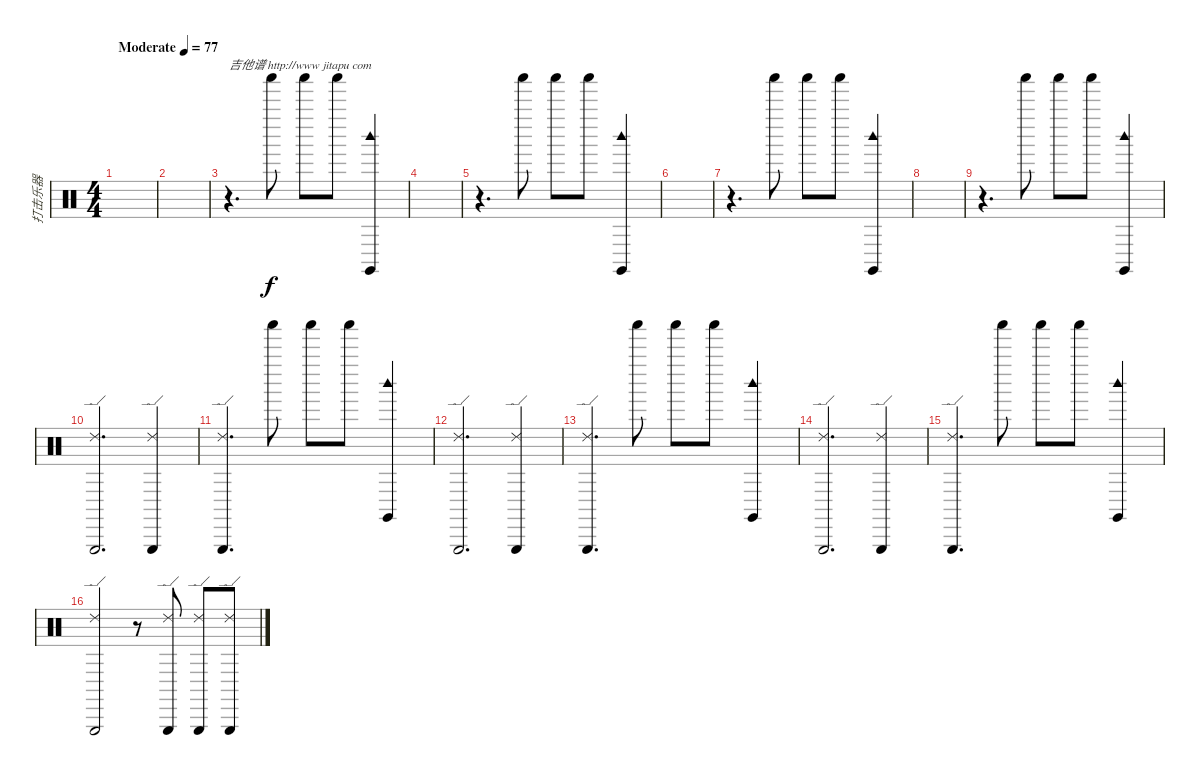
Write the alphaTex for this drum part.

\track ("打击乐器" "打击乐器") {instrument percussion}
\staff {score}
\articulation defaults
\ts (4 4)
\tempo (77 "Moderate")
\clef neutral
\ks c
|
|
r.4{d txt "吉他谱 http://www jitapu com"} "Shaker (hit)".8 "Shaker (hit)".8 "Shaker (hit)".8 ("Claves (hit)" "Woodblock high (hit)").4 |
|
r.4{d} "Shaker (hit)".8 "Shaker (hit)".8 "Shaker (hit)".8 ("Claves (hit)" "Woodblock high (hit)").4 |
|
r.4{d} "Shaker (hit)".8 "Shaker (hit)".8 "Shaker (hit)".8 ("Claves (hit)" "Woodblock high (hit)").4 |
|
r.4{d} "Shaker (hit)".8 "Shaker (hit)".8 "Shaker (hit)".8 ("Claves (hit)" "Woodblock high (hit)").4 |
("Ride (edge) 2" "Triangle (hit)").2{d} ("Ride (edge) 2" "Triangle (hit)").4 |
("Ride (edge) 2" "Triangle (hit)").4{d} "Shaker (hit)".8 "Shaker (hit)".8 "Shaker (hit)".8 ("Claves (hit)" "Woodblock high (hit)").4 |
("Ride (edge) 2" "Triangle (hit)").2{d} ("Ride (edge) 2" "Triangle (hit)").4 |
("Ride (edge) 2" "Triangle (hit)").4{d} "Shaker (hit)".8 "Shaker (hit)".8 "Shaker (hit)".8 ("Claves (hit)" "Woodblock high (hit)").4 |
("Ride (edge) 2" "Triangle (hit)").2{d} ("Ride (edge) 2" "Triangle (hit)").4 |
("Ride (edge) 2" "Triangle (hit)").4{d} "Shaker (hit)".8 "Shaker (hit)".8 "Shaker (hit)".8 ("Claves (hit)" "Woodblock high (hit)").4 |
("Ride (edge) 2" "Triangle (hit)").2 r.8 ("Ride (edge) 2" "Triangle (hit)").8 ("Ride (edge) 2" "Triangle (hit)").8 ("Ride (edge) 2" "Triangle (hit)").8
